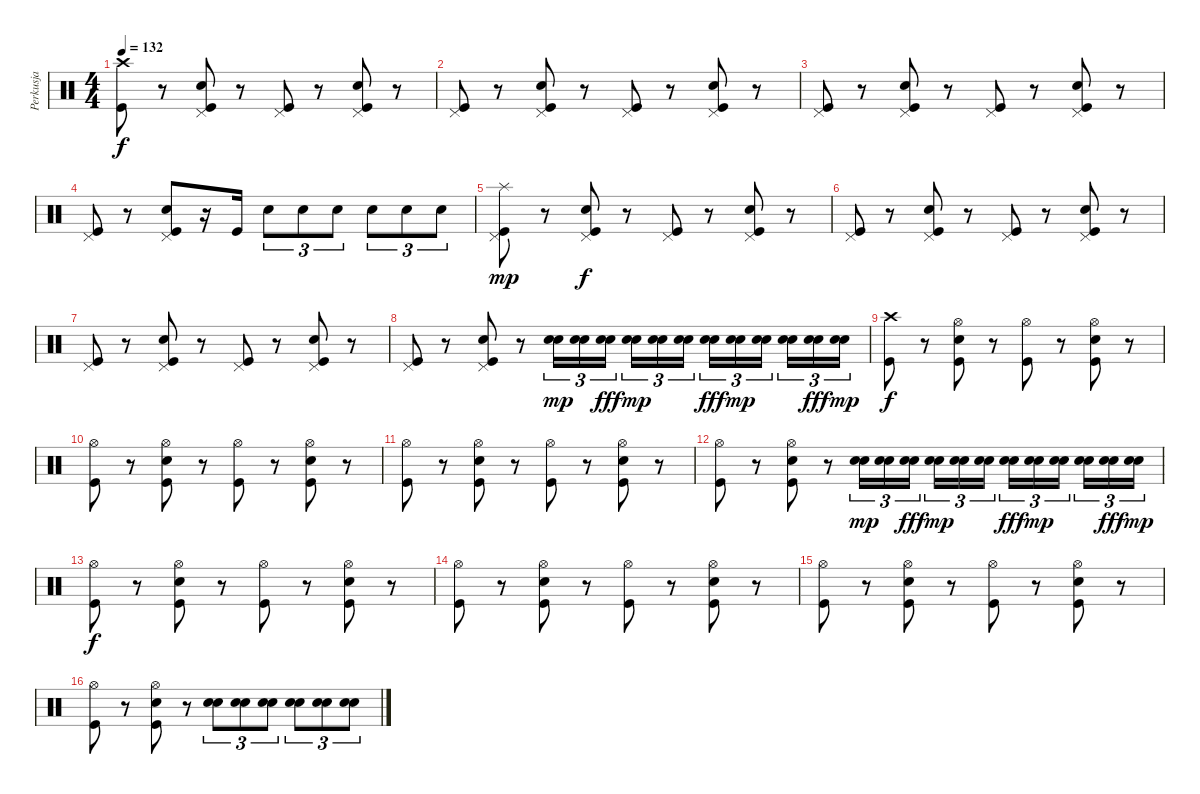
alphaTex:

\track ("Perkusja" "Perkusja") {instrument percussion}
\staff {score}
\articulation defaults
\ts (4 4)
\tempo 132
\clef neutral
\ks c
("Crash high (hit)" "Kick (hit)").8{dy f} r.8 ("Pedal Hi-Hat (hit)" "Electric Snare (hit)" "Kick (hit)").8 r.8 ("Pedal Hi-Hat (hit)" "Kick (hit)").8 r.8 ("Pedal Hi-Hat (hit)" "Electric Snare (hit)" "Kick (hit)").8 r.8 |
("Pedal Hi-Hat (hit)" "Kick (hit)").8 r.8 ("Pedal Hi-Hat (hit)" "Electric Snare (hit)" "Kick (hit)").8 r.8 ("Pedal Hi-Hat (hit)" "Kick (hit)").8 r.8 ("Pedal Hi-Hat (hit)" "Electric Snare (hit)" "Kick (hit)").8 r.8 |
("Pedal Hi-Hat (hit)" "Kick (hit)").8 r.8 ("Pedal Hi-Hat (hit)" "Electric Snare (hit)" "Kick (hit)").8 r.8 ("Pedal Hi-Hat (hit)" "Kick (hit)").8 r.8 ("Pedal Hi-Hat (hit)" "Electric Snare (hit)" "Kick (hit)").8 r.8 |
("Pedal Hi-Hat (hit)" "Kick (hit)").8 r.8 ("Pedal Hi-Hat (hit)" "Electric Snare (hit)" "Kick (hit)").8 r.16 "Kick (hit)".16 "Electric Snare (hit)".8{tu (3 2)} "Electric Snare (hit)".8{tu (3 2)} "Electric Snare (hit)".8{tu (3 2)} "Electric Snare (hit)".8{tu (3 2)} "Electric Snare (hit)".8{tu (3 2)} "Electric Snare (hit)".8{tu (3 2)} |
("Pedal Hi-Hat (hit)" "Splash (hit)" "Kick (hit)").8{dy mp} r.8 ("Pedal Hi-Hat (hit)" "Electric Snare (hit)" "Kick (hit)").8{dy f} r.8 ("Pedal Hi-Hat (hit)" "Kick (hit)").8 r.8 ("Pedal Hi-Hat (hit)" "Electric Snare (hit)" "Kick (hit)").8 r.8 |
("Pedal Hi-Hat (hit)" "Kick (hit)").8 r.8 ("Pedal Hi-Hat (hit)" "Electric Snare (hit)" "Kick (hit)").8 r.8 ("Pedal Hi-Hat (hit)" "Kick (hit)").8 r.8 ("Pedal Hi-Hat (hit)" "Electric Snare (hit)" "Kick (hit)").8 r.8 |
("Pedal Hi-Hat (hit)" "Kick (hit)").8 r.8 ("Pedal Hi-Hat (hit)" "Electric Snare (hit)" "Kick (hit)").8 r.8 ("Pedal Hi-Hat (hit)" "Kick (hit)").8 r.8 ("Pedal Hi-Hat (hit)" "Electric Snare (hit)" "Kick (hit)").8 r.8 |
("Pedal Hi-Hat (hit)" "Kick (hit)").8 r.8 ("Pedal Hi-Hat (hit)" "Electric Snare (hit)" "Kick (hit)").8 r.8 ("Electric Snare (hit)" "Electric Snare (hit)").16{tu (3 2) dy mp} ("Electric Snare (hit)" "Electric Snare (hit)").16{tu (3 2)} ("Electric Snare (hit)" "Electric Snare (hit)").16{tu (3 2) dy fff} ("Electric Snare (hit)" "Electric Snare (hit)").16{tu (3 2) dy mp} ("Electric Snare (hit)" "Electric Snare (hit)").16{tu (3 2)} ("Electric Snare (hit)" "Electric Snare (hit)").16{tu (3 2)} ("Electric Snare (hit)" "Electric Snare (hit)").16{tu (3 2) dy fff} ("Electric Snare (hit)" "Electric Snare (hit)").16{tu (3 2) dy mp} ("Electric Snare (hit)" "Electric Snare (hit)").16{tu (3 2)} ("Electric Snare (hit)" "Electric Snare (hit)").16{tu (3 2)} ("Electric Snare (hit)" "Electric Snare (hit)").16{tu (3 2) dy fff} ("Electric Snare (hit)" "Electric Snare (hit)").16{tu (3 2) dy mp} |
("Crash high (hit)" "Kick (hit)").8{dy f} r.8 ("Hi-Hat (open)" "Electric Snare (hit)" "Kick (hit)").8 r.8 ("Hi-Hat (open)" "Kick (hit)").8 r.8 ("Hi-Hat (open)" "Electric Snare (hit)" "Kick (hit)").8 r.8 |
("Hi-Hat (open)" "Kick (hit)").8 r.8 ("Hi-Hat (open)" "Electric Snare (hit)" "Kick (hit)").8 r.8 ("Hi-Hat (open)" "Kick (hit)").8 r.8 ("Hi-Hat (open)" "Electric Snare (hit)" "Kick (hit)").8 r.8 |
("Hi-Hat (open)" "Kick (hit)").8 r.8 ("Hi-Hat (open)" "Electric Snare (hit)" "Kick (hit)").8 r.8 ("Hi-Hat (open)" "Kick (hit)").8 r.8 ("Hi-Hat (open)" "Electric Snare (hit)" "Kick (hit)").8 r.8 |
("Hi-Hat (open)" "Kick (hit)").8 r.8 ("Hi-Hat (open)" "Electric Snare (hit)" "Kick (hit)").8 r.8 ("Electric Snare (hit)" "Electric Snare (hit)").16{tu (3 2) dy mp} ("Electric Snare (hit)" "Electric Snare (hit)").16{tu (3 2)} ("Electric Snare (hit)" "Electric Snare (hit)").16{tu (3 2) dy fff} ("Electric Snare (hit)" "Electric Snare (hit)").16{tu (3 2) dy mp} ("Electric Snare (hit)" "Electric Snare (hit)").16{tu (3 2)} ("Electric Snare (hit)" "Electric Snare (hit)").16{tu (3 2)} ("Electric Snare (hit)" "Electric Snare (hit)").16{tu (3 2) dy fff} ("Electric Snare (hit)" "Electric Snare (hit)").16{tu (3 2) dy mp} ("Electric Snare (hit)" "Electric Snare (hit)").16{tu (3 2)} ("Electric Snare (hit)" "Electric Snare (hit)").16{tu (3 2)} ("Electric Snare (hit)" "Electric Snare (hit)").16{tu (3 2) dy fff} ("Electric Snare (hit)" "Electric Snare (hit)").16{tu (3 2) dy mp} |
("Hi-Hat (open)" "Kick (hit)").8{dy f} r.8 ("Hi-Hat (open)" "Electric Snare (hit)" "Kick (hit)").8 r.8 ("Hi-Hat (open)" "Kick (hit)").8 r.8 ("Hi-Hat (open)" "Electric Snare (hit)" "Kick (hit)").8 r.8 |
("Hi-Hat (open)" "Kick (hit)").8 r.8 ("Hi-Hat (open)" "Electric Snare (hit)" "Kick (hit)").8 r.8 ("Hi-Hat (open)" "Kick (hit)").8 r.8 ("Hi-Hat (open)" "Electric Snare (hit)" "Kick (hit)").8 r.8 |
("Hi-Hat (open)" "Kick (hit)").8 r.8 ("Hi-Hat (open)" "Electric Snare (hit)" "Kick (hit)").8 r.8 ("Hi-Hat (open)" "Kick (hit)").8 r.8 ("Hi-Hat (open)" "Electric Snare (hit)" "Kick (hit)").8 r.8 |
("Hi-Hat (open)" "Kick (hit)").8 r.8 ("Hi-Hat (open)" "Electric Snare (hit)" "Kick (hit)").8 r.8 ("Electric Snare (hit)" "Electric Snare (hit)").8{tu (3 2)} ("Electric Snare (hit)" "Electric Snare (hit)").8{tu (3 2)} ("Electric Snare (hit)" "Electric Snare (hit)").8{tu (3 2)} ("Electric Snare (hit)" "Electric Snare (hit)").8{tu (3 2)} ("Electric Snare (hit)" "Electric Snare (hit)").8{tu (3 2)} ("Electric Snare (hit)" "Electric Snare (hit)").8{tu (3 2)}
